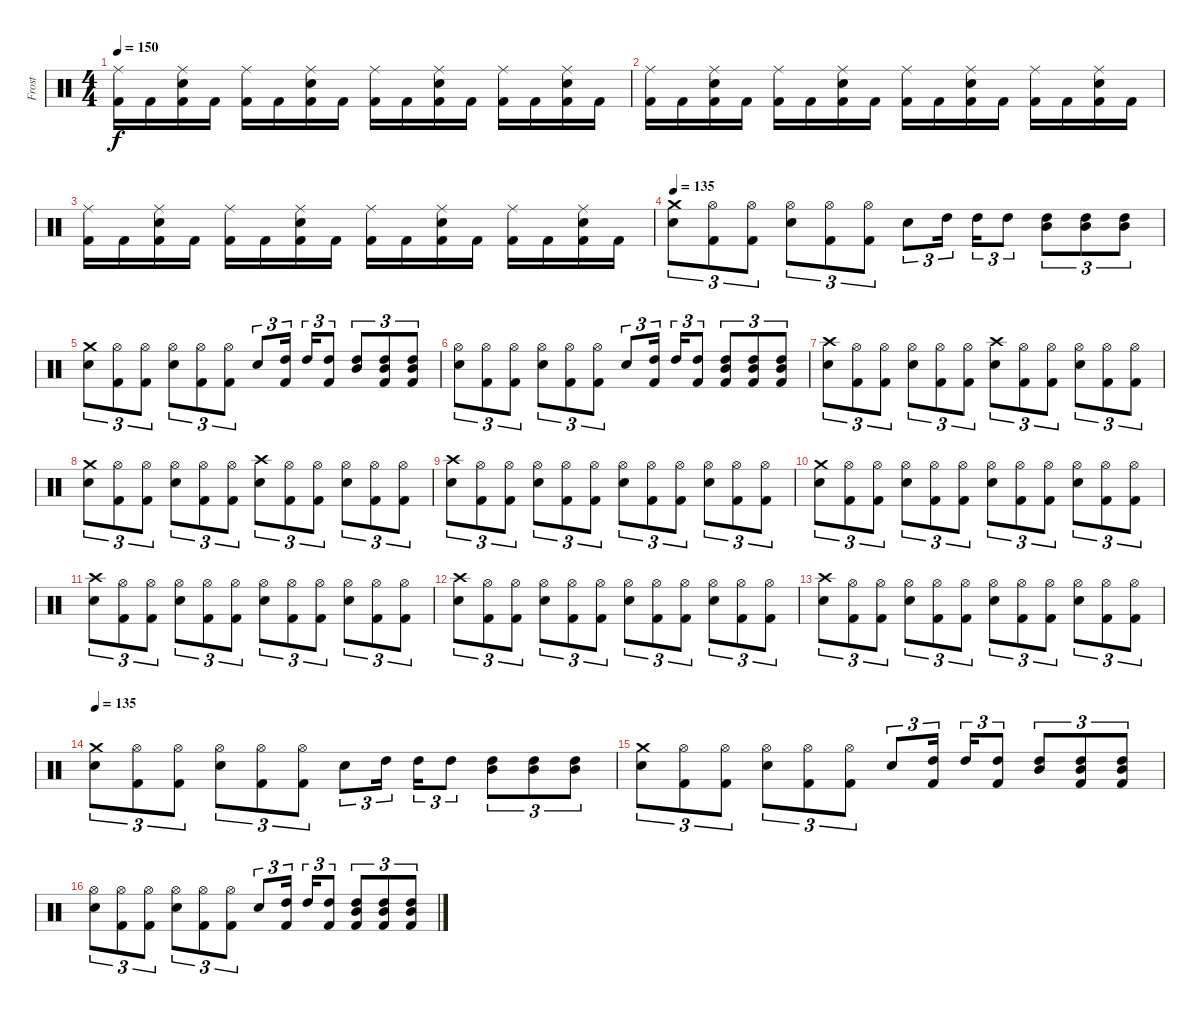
\track ("Frost" "Frost") {instrument percussion}
\staff {score}
\articulation defaults
\ts (4 4)
\tempo 150
\clef neutral
\ks c
("Ride (middle)" "Kick (hit) 2").16{dy f} "Kick (hit) 2".16 ("Ride (middle)" "Electric Snare (hit)" "Kick (hit) 2").16 "Kick (hit) 2".16 ("Ride (middle)" "Kick (hit) 2").16 "Kick (hit) 2".16 ("Ride (middle)" "Electric Snare (hit)" "Kick (hit) 2").16 "Kick (hit) 2".16 ("Ride (middle)" "Kick (hit) 2").16 "Kick (hit) 2".16 ("Ride (middle)" "Electric Snare (hit)" "Kick (hit) 2").16 "Kick (hit) 2".16 ("Ride (middle)" "Kick (hit) 2").16 "Kick (hit) 2".16 ("Ride (middle)" "Electric Snare (hit)" "Kick (hit) 2").16 "Kick (hit) 2".16 |
("Ride (middle)" "Kick (hit) 2").16 "Kick (hit) 2".16 ("Ride (middle)" "Electric Snare (hit)" "Kick (hit) 2").16 "Kick (hit) 2".16 ("Ride (middle)" "Kick (hit) 2").16 "Kick (hit) 2".16 ("Ride (middle)" "Electric Snare (hit)" "Kick (hit) 2").16 "Kick (hit) 2".16 ("Ride (middle)" "Kick (hit) 2").16 "Kick (hit) 2".16 ("Ride (middle)" "Electric Snare (hit)" "Kick (hit) 2").16 "Kick (hit) 2".16 ("Ride (middle)" "Kick (hit) 2").16 "Kick (hit) 2".16 ("Ride (middle)" "Electric Snare (hit)" "Kick (hit) 2").16 "Kick (hit) 2".16 |
("Ride (middle)" "Kick (hit) 2").16 "Kick (hit) 2".16 ("Ride (middle)" "Electric Snare (hit)" "Kick (hit) 2").16 "Kick (hit) 2".16 ("Ride (middle)" "Kick (hit) 2").16 "Kick (hit) 2".16 ("Ride (middle)" "Electric Snare (hit)" "Kick (hit) 2").16 "Kick (hit) 2".16 ("Ride (middle)" "Kick (hit) 2").16 "Kick (hit) 2".16 ("Ride (middle)" "Electric Snare (hit)" "Kick (hit) 2").16 "Kick (hit) 2".16 ("Ride (middle)" "Kick (hit) 2").16 "Kick (hit) 2".16 ("Ride (middle)" "Electric Snare (hit)" "Kick (hit) 2").16 "Kick (hit) 2".16 |
\tempo 135
("Crash medium (hit)" "Electric Snare (hit)").8{tu (3 2)} ("Hi-Hat (open)" "Kick (hit) 2").8{tu (3 2)} ("Hi-Hat (open)" "Kick (hit) 2").8{tu (3 2)} ("Hi-Hat (open)" "Electric Snare (hit)").8{tu (3 2)} ("Hi-Hat (open)" "Kick (hit) 2").8{tu (3 2)} ("Hi-Hat (open)" "Kick (hit) 2").8{tu (3 2)} "Electric Snare (hit)".8{tu (3 2)} "High Tom (hit)".16{tu (3 2)} "High Tom (hit)".16{tu (3 2)} "High Tom (hit)".8{tu (3 2)} ("High Tom (hit)" "Mid Tom (hit)").8{tu (3 2)} ("High Tom (hit)" "Mid Tom (hit)").8{tu (3 2)} ("High Tom (hit)" "Mid Tom (hit)").8{tu (3 2)} |
("Crash medium (hit)" "Electric Snare (hit)").8{tu (3 2)} ("Hi-Hat (open)" "Kick (hit) 2").8{tu (3 2)} ("Hi-Hat (open)" "Kick (hit) 2").8{tu (3 2)} ("Hi-Hat (open)" "Electric Snare (hit)").8{tu (3 2)} ("Hi-Hat (open)" "Kick (hit) 2").8{tu (3 2)} ("Hi-Hat (open)" "Kick (hit) 2").8{tu (3 2)} "Electric Snare (hit)".8{tu (3 2)} ("High Tom (hit)" "Kick (hit) 2").16{tu (3 2)} "High Tom (hit)".16{tu (3 2)} ("High Tom (hit)" "Kick (hit) 2").8{tu (3 2)} ("High Tom (hit)" "Mid Tom (hit)").8{tu (3 2)} ("High Tom (hit)" "Mid Tom (hit)" "Kick (hit) 2").8{tu (3 2)} ("High Tom (hit)" "Mid Tom (hit)" "Kick (hit) 2").8{tu (3 2)} |
("Hi-Hat (open)" "Electric Snare (hit)").8{tu (3 2)} ("Hi-Hat (open)" "Kick (hit) 2").8{tu (3 2)} ("Hi-Hat (open)" "Kick (hit) 2").8{tu (3 2)} ("Hi-Hat (open)" "Electric Snare (hit)").8{tu (3 2)} ("Hi-Hat (open)" "Kick (hit) 2").8{tu (3 2)} ("Hi-Hat (open)" "Kick (hit) 2").8{tu (3 2)} "Electric Snare (hit)".8{tu (3 2)} ("High Tom (hit)" "Kick (hit) 2").16{tu (3 2)} "High Tom (hit)".16{tu (3 2)} ("High Tom (hit)" "Kick (hit) 2").8{tu (3 2)} ("High Tom (hit)" "Mid Tom (hit)" "Kick (hit) 2").8{tu (3 2)} ("High Tom (hit)" "Mid Tom (hit)" "Kick (hit) 2").8{tu (3 2)} ("High Tom (hit)" "Mid Tom (hit)" "Kick (hit) 2").8{tu (3 2)} |
("Crash high (hit)" "Electric Snare (hit)").8{tu (3 2)} ("Hi-Hat (open)" "Kick (hit) 2").8{tu (3 2)} ("Hi-Hat (open)" "Kick (hit) 2").8{tu (3 2)} ("Hi-Hat (open)" "Electric Snare (hit)").8{tu (3 2)} ("Hi-Hat (open)" "Kick (hit) 2").8{tu (3 2)} ("Hi-Hat (open)" "Kick (hit) 2").8{tu (3 2)} ("Crash high (hit)" "Electric Snare (hit)").8{tu (3 2)} ("Hi-Hat (open)" "Kick (hit) 2").8{tu (3 2)} ("Hi-Hat (open)" "Kick (hit) 2").8{tu (3 2)} ("Hi-Hat (open)" "Electric Snare (hit)").8{tu (3 2)} ("Hi-Hat (open)" "Kick (hit) 2").8{tu (3 2)} ("Hi-Hat (open)" "Kick (hit) 2").8{tu (3 2)} |
("Crash medium (hit)" "Electric Snare (hit)").8{tu (3 2)} ("Hi-Hat (open)" "Kick (hit) 2").8{tu (3 2)} ("Hi-Hat (open)" "Kick (hit) 2").8{tu (3 2)} ("Hi-Hat (open)" "Electric Snare (hit)").8{tu (3 2)} ("Hi-Hat (open)" "Kick (hit) 2").8{tu (3 2)} ("Hi-Hat (open)" "Kick (hit) 2").8{tu (3 2)} ("Crash high (hit)" "Electric Snare (hit)").8{tu (3 2)} ("Hi-Hat (open)" "Kick (hit) 2").8{tu (3 2)} ("Hi-Hat (open)" "Kick (hit) 2").8{tu (3 2)} ("Hi-Hat (open)" "Electric Snare (hit)").8{tu (3 2)} ("Hi-Hat (open)" "Kick (hit) 2").8{tu (3 2)} ("Hi-Hat (open)" "Kick (hit) 2").8{tu (3 2)} |
("Crash high (hit)" "Electric Snare (hit)").8{tu (3 2)} ("Hi-Hat (open)" "Kick (hit) 2").8{tu (3 2)} ("Hi-Hat (open)" "Kick (hit) 2").8{tu (3 2)} ("Hi-Hat (open)" "Electric Snare (hit)").8{tu (3 2)} ("Hi-Hat (open)" "Kick (hit) 2").8{tu (3 2)} ("Hi-Hat (open)" "Kick (hit) 2").8{tu (3 2)} ("Hi-Hat (open)" "Electric Snare (hit)").8{tu (3 2)} ("Hi-Hat (open)" "Kick (hit) 2").8{tu (3 2)} ("Hi-Hat (open)" "Kick (hit) 2").8{tu (3 2)} ("Hi-Hat (open)" "Electric Snare (hit)").8{tu (3 2)} ("Hi-Hat (open)" "Kick (hit) 2").8{tu (3 2)} ("Hi-Hat (open)" "Kick (hit) 2").8{tu (3 2)} |
("Crash medium (hit)" "Electric Snare (hit)").8{tu (3 2)} ("Hi-Hat (open)" "Kick (hit) 2").8{tu (3 2)} ("Hi-Hat (open)" "Kick (hit) 2").8{tu (3 2)} ("Hi-Hat (open)" "Electric Snare (hit)").8{tu (3 2)} ("Hi-Hat (open)" "Kick (hit) 2").8{tu (3 2)} ("Hi-Hat (open)" "Kick (hit) 2").8{tu (3 2)} ("Hi-Hat (open)" "Electric Snare (hit)").8{tu (3 2)} ("Hi-Hat (open)" "Kick (hit) 2").8{tu (3 2)} ("Hi-Hat (open)" "Kick (hit) 2").8{tu (3 2)} ("Hi-Hat (open)" "Electric Snare (hit)").8{tu (3 2)} ("Hi-Hat (open)" "Kick (hit) 2").8{tu (3 2)} ("Hi-Hat (open)" "Kick (hit) 2").8{tu (3 2)} |
("Crash high (hit)" "Electric Snare (hit)").8{tu (3 2)} ("Hi-Hat (open)" "Kick (hit) 2").8{tu (3 2)} ("Hi-Hat (open)" "Kick (hit) 2").8{tu (3 2)} ("Hi-Hat (open)" "Electric Snare (hit)").8{tu (3 2)} ("Hi-Hat (open)" "Kick (hit) 2").8{tu (3 2)} ("Hi-Hat (open)" "Kick (hit) 2").8{tu (3 2)} ("Hi-Hat (open)" "Electric Snare (hit)").8{tu (3 2)} ("Hi-Hat (open)" "Kick (hit) 2").8{tu (3 2)} ("Hi-Hat (open)" "Kick (hit) 2").8{tu (3 2)} ("Hi-Hat (open)" "Electric Snare (hit)").8{tu (3 2)} ("Hi-Hat (open)" "Kick (hit) 2").8{tu (3 2)} ("Hi-Hat (open)" "Kick (hit) 2").8{tu (3 2)} |
("Crash high (hit)" "Electric Snare (hit)").8{tu (3 2)} ("Hi-Hat (open)" "Kick (hit) 2").8{tu (3 2)} ("Hi-Hat (open)" "Kick (hit) 2").8{tu (3 2)} ("Hi-Hat (open)" "Electric Snare (hit)").8{tu (3 2)} ("Hi-Hat (open)" "Kick (hit) 2").8{tu (3 2)} ("Hi-Hat (open)" "Kick (hit) 2").8{tu (3 2)} ("Hi-Hat (open)" "Electric Snare (hit)").8{tu (3 2)} ("Hi-Hat (open)" "Kick (hit) 2").8{tu (3 2)} ("Hi-Hat (open)" "Kick (hit) 2").8{tu (3 2)} ("Hi-Hat (open)" "Electric Snare (hit)").8{tu (3 2)} ("Hi-Hat (open)" "Kick (hit) 2").8{tu (3 2)} ("Hi-Hat (open)" "Kick (hit) 2").8{tu (3 2)} |
("Crash high (hit)" "Electric Snare (hit)").8{tu (3 2)} ("Hi-Hat (open)" "Kick (hit) 2").8{tu (3 2)} ("Hi-Hat (open)" "Kick (hit) 2").8{tu (3 2)} ("Hi-Hat (open)" "Electric Snare (hit)").8{tu (3 2)} ("Hi-Hat (open)" "Kick (hit) 2").8{tu (3 2)} ("Hi-Hat (open)" "Kick (hit) 2").8{tu (3 2)} ("Hi-Hat (open)" "Electric Snare (hit)").8{tu (3 2)} ("Hi-Hat (open)" "Kick (hit) 2").8{tu (3 2)} ("Hi-Hat (open)" "Kick (hit) 2").8{tu (3 2)} ("Hi-Hat (open)" "Electric Snare (hit)").8{tu (3 2)} ("Hi-Hat (open)" "Kick (hit) 2").8{tu (3 2)} ("Hi-Hat (open)" "Kick (hit) 2").8{tu (3 2)} |
\tempo 135
("Crash medium (hit)" "Electric Snare (hit)").8{tu (3 2)} ("Hi-Hat (open)" "Kick (hit) 2").8{tu (3 2)} ("Hi-Hat (open)" "Kick (hit) 2").8{tu (3 2)} ("Hi-Hat (open)" "Electric Snare (hit)").8{tu (3 2)} ("Hi-Hat (open)" "Kick (hit) 2").8{tu (3 2)} ("Hi-Hat (open)" "Kick (hit) 2").8{tu (3 2)} "Electric Snare (hit)".8{tu (3 2)} "High Tom (hit)".16{tu (3 2)} "High Tom (hit)".16{tu (3 2)} "High Tom (hit)".8{tu (3 2)} ("High Tom (hit)" "Mid Tom (hit)").8{tu (3 2)} ("High Tom (hit)" "Mid Tom (hit)").8{tu (3 2)} ("High Tom (hit)" "Mid Tom (hit)").8{tu (3 2)} |
("Crash medium (hit)" "Electric Snare (hit)").8{tu (3 2)} ("Hi-Hat (open)" "Kick (hit) 2").8{tu (3 2)} ("Hi-Hat (open)" "Kick (hit) 2").8{tu (3 2)} ("Hi-Hat (open)" "Electric Snare (hit)").8{tu (3 2)} ("Hi-Hat (open)" "Kick (hit) 2").8{tu (3 2)} ("Hi-Hat (open)" "Kick (hit) 2").8{tu (3 2)} "Electric Snare (hit)".8{tu (3 2)} ("High Tom (hit)" "Kick (hit) 2").16{tu (3 2)} "High Tom (hit)".16{tu (3 2)} ("High Tom (hit)" "Kick (hit) 2").8{tu (3 2)} ("High Tom (hit)" "Mid Tom (hit)").8{tu (3 2)} ("High Tom (hit)" "Mid Tom (hit)" "Kick (hit) 2").8{tu (3 2)} ("High Tom (hit)" "Mid Tom (hit)" "Kick (hit) 2").8{tu (3 2)} |
("Hi-Hat (open)" "Electric Snare (hit)").8{tu (3 2)} ("Hi-Hat (open)" "Kick (hit) 2").8{tu (3 2)} ("Hi-Hat (open)" "Kick (hit) 2").8{tu (3 2)} ("Hi-Hat (open)" "Electric Snare (hit)").8{tu (3 2)} ("Hi-Hat (open)" "Kick (hit) 2").8{tu (3 2)} ("Hi-Hat (open)" "Kick (hit) 2").8{tu (3 2)} "Electric Snare (hit)".8{tu (3 2)} ("High Tom (hit)" "Kick (hit) 2").16{tu (3 2)} "High Tom (hit)".16{tu (3 2)} ("High Tom (hit)" "Kick (hit) 2").8{tu (3 2)} ("High Tom (hit)" "Mid Tom (hit)" "Kick (hit) 2").8{tu (3 2)} ("High Tom (hit)" "Mid Tom (hit)" "Kick (hit) 2").8{tu (3 2)} ("High Tom (hit)" "Mid Tom (hit)" "Kick (hit) 2").8{tu (3 2)}
